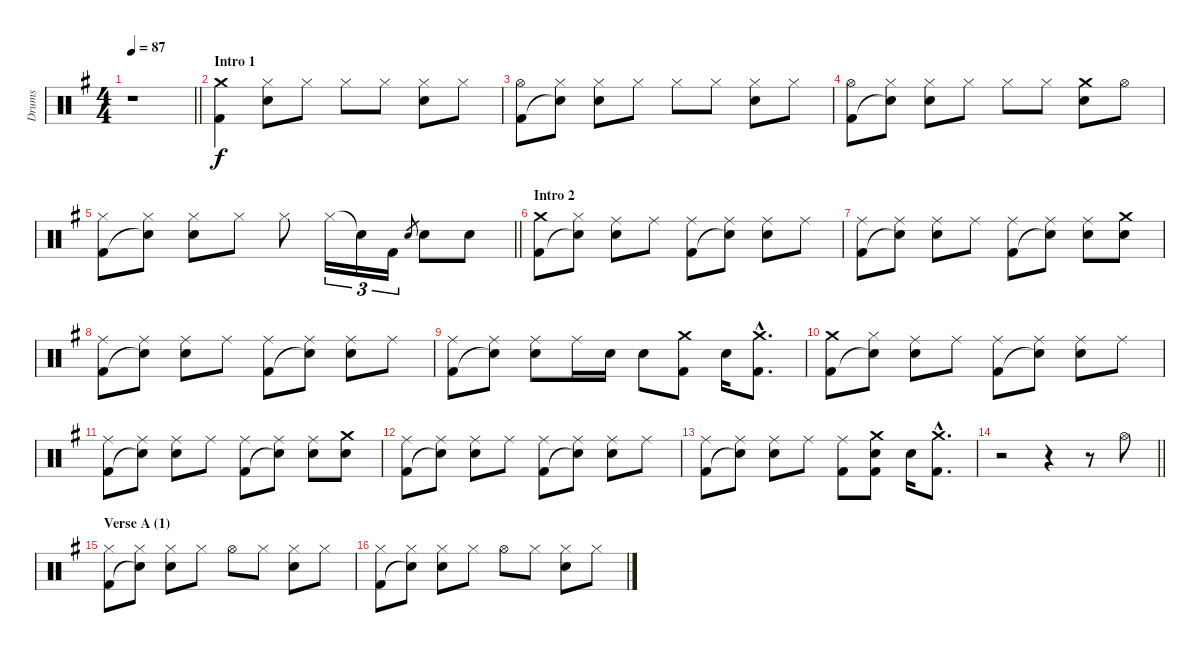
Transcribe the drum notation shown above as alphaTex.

\track ("Drums" "Drums") {instrument percussion}
\staff {score}
\articulation defaults
\ts (4 4)
\tempo 87
\clef neutral
\barLineRight lightlight
\ks g
r.1{dy f} |
\section ("" "Intro 1")
("Crash medium (hit)" "Kick (hit) 2").4 ("Hi-Hat (closed)" "Electric Snare (hit)").8 "Hi-Hat (closed)".8 "Hi-Hat (closed)".8 "Hi-Hat (closed)".8 ("Hi-Hat (closed)" "Electric Snare (hit)").8 "Hi-Hat (closed)".8 |
("Hi-Hat (open)" "Kick (hit) 2").8 ("Hi-Hat (closed)" "Snare (hit)"{t}).8 ("Hi-Hat (closed)" "Electric Snare (hit)").8 "Hi-Hat (closed)".8 "Hi-Hat (closed)".8 "Hi-Hat (closed)".8 ("Hi-Hat (closed)" "Electric Snare (hit)").8 "Hi-Hat (closed)".8 |
("Hi-Hat (open)" "Kick (hit) 2").8 ("Hi-Hat (closed)" "Snare (hit)"{t}).8 ("Hi-Hat (closed)" "Electric Snare (hit)").8 "Hi-Hat (closed)".8 "Hi-Hat (closed)".8 "Hi-Hat (closed)".8 ("Crash medium (hit)" "Electric Snare (hit)").8 "Hi-Hat (open)".8 |
\barLineRight lightlight
("Hi-Hat (closed)" "Kick (hit) 2").8 ("Hi-Hat (closed)" "Snare (hit)"{t}).8 ("Hi-Hat (closed)" "Electric Snare (hit)").8 "Hi-Hat (closed)".8 "Hi-Hat (closed)".8 "Hi-Hat (closed)".16{tu (3 2)} "Snare (hit)"{t}.16{tu (3 2)} "Kick (hit) 2".16{tu (3 2)} "Electric Snare (hit)".8{gr} "Electric Snare (hit)".8 "Electric Snare (hit)".8 |
\section ("" "Intro 2")
("Crash medium (hit)" "Kick (hit) 2").8 ("Hi-Hat (closed)" "Snare (hit)"{t}).8 ("Ride (middle)" "Electric Snare (hit)").8 "Ride (middle)".8 ("Ride (middle)" "Kick (hit) 2").8 ("Ride (middle)" "Snare (hit)"{t}).8 ("Ride (middle)" "Electric Snare (hit)").8 "Ride (middle)".8 |
("Ride (middle)" "Kick (hit) 2").8 ("Ride (middle)" "Snare (hit)"{t}).8 ("Ride (middle)" "Electric Snare (hit)").8 "Ride (middle)".8 ("Ride (middle)" "Kick (hit) 2").8 ("Ride (middle)" "Snare (hit)"{t}).8 ("Ride (middle)" "Electric Snare (hit)").8 ("Crash medium (hit)" "Electric Snare (hit)").8 |
("Ride (middle)" "Kick (hit) 2").8 ("Ride (middle)" "Snare (hit)"{t}).8 ("Ride (middle)" "Electric Snare (hit)").8 "Ride (middle)".8 ("Ride (middle)" "Kick (hit) 2").8 ("Ride (middle)" "Snare (hit)"{t}).8 ("Ride (middle)" "Electric Snare (hit)").8 "Ride (middle)".8 |
("Ride (middle)" "Kick (hit) 2").8 ("Ride (middle)" "Snare (hit)"{t}).8 ("Ride (middle)" "Electric Snare (hit)").8 "Ride (middle)".16 "Electric Snare (hit)".16 "Electric Snare (hit)".8 ("Crash medium (hit)" "Kick (hit) 2").8 "Electric Snare (hit)".16 ("Crash medium (hit)"{hac} "Kick (hit) 2"{hac}).8{d} |
("Crash medium (hit)" "Kick (hit) 2").8 ("Hi-Hat (closed)" "Snare (hit)"{t}).8 ("Ride (middle)" "Electric Snare (hit)").8 "Ride (middle)".8 ("Ride (middle)" "Kick (hit) 2").8 ("Ride (middle)" "Snare (hit)"{t}).8 ("Ride (middle)" "Electric Snare (hit)").8 "Ride (middle)".8 |
("Ride (middle)" "Kick (hit) 2").8 ("Ride (middle)" "Snare (hit)"{t}).8 ("Ride (middle)" "Electric Snare (hit)").8 "Ride (middle)".8 ("Ride (middle)" "Kick (hit) 2").8 ("Ride (middle)" "Snare (hit)"{t}).8 ("Ride (middle)" "Electric Snare (hit)").8 ("Crash medium (hit)" "Electric Snare (hit)").8 |
("Ride (middle)" "Kick (hit) 2").8 ("Ride (middle)" "Snare (hit)"{t}).8 ("Ride (middle)" "Electric Snare (hit)").8 "Ride (middle)".8 ("Ride (middle)" "Kick (hit) 2").8 ("Ride (middle)" "Snare (hit)"{t}).8 ("Ride (middle)" "Electric Snare (hit)").8 "Ride (middle)".8 |
("Ride (middle)" "Kick (hit) 2").8 ("Ride (middle)" "Snare (hit)"{t}).8 ("Ride (middle)" "Electric Snare (hit)").8 "Ride (middle)".8 ("Ride (middle)" "Kick (hit) 2").8 ("Crash medium (hit)" "Electric Snare (hit)" "Kick (hit) 2").8 "Electric Snare (hit)".16 ("Crash medium (hit)"{hac} "Kick (hit) 2"{hac}).8{d} |
\barLineRight lightlight
r.2 r.4 r.8 "Hi-Hat (open)".8 |
\section ("" "Verse A (1)")
("Hi-Hat (closed)" "Kick (hit) 2").8 ("Hi-Hat (closed)" "Snare (hit)"{t}).8 ("Hi-Hat (closed)" "Electric Snare (hit)").8 "Hi-Hat (closed)".8 "Hi-Hat (open)".8 "Hi-Hat (closed)".8 ("Hi-Hat (closed)" "Electric Snare (hit)").8 "Hi-Hat (closed)".8 |
("Hi-Hat (closed)" "Kick (hit) 2").8 ("Hi-Hat (closed)" "Snare (hit)"{t}).8 ("Hi-Hat (closed)" "Electric Snare (hit)").8 "Hi-Hat (closed)".8 "Hi-Hat (open)".8 "Hi-Hat (closed)".8 ("Hi-Hat (closed)" "Electric Snare (hit)").8 "Hi-Hat (closed)".8
